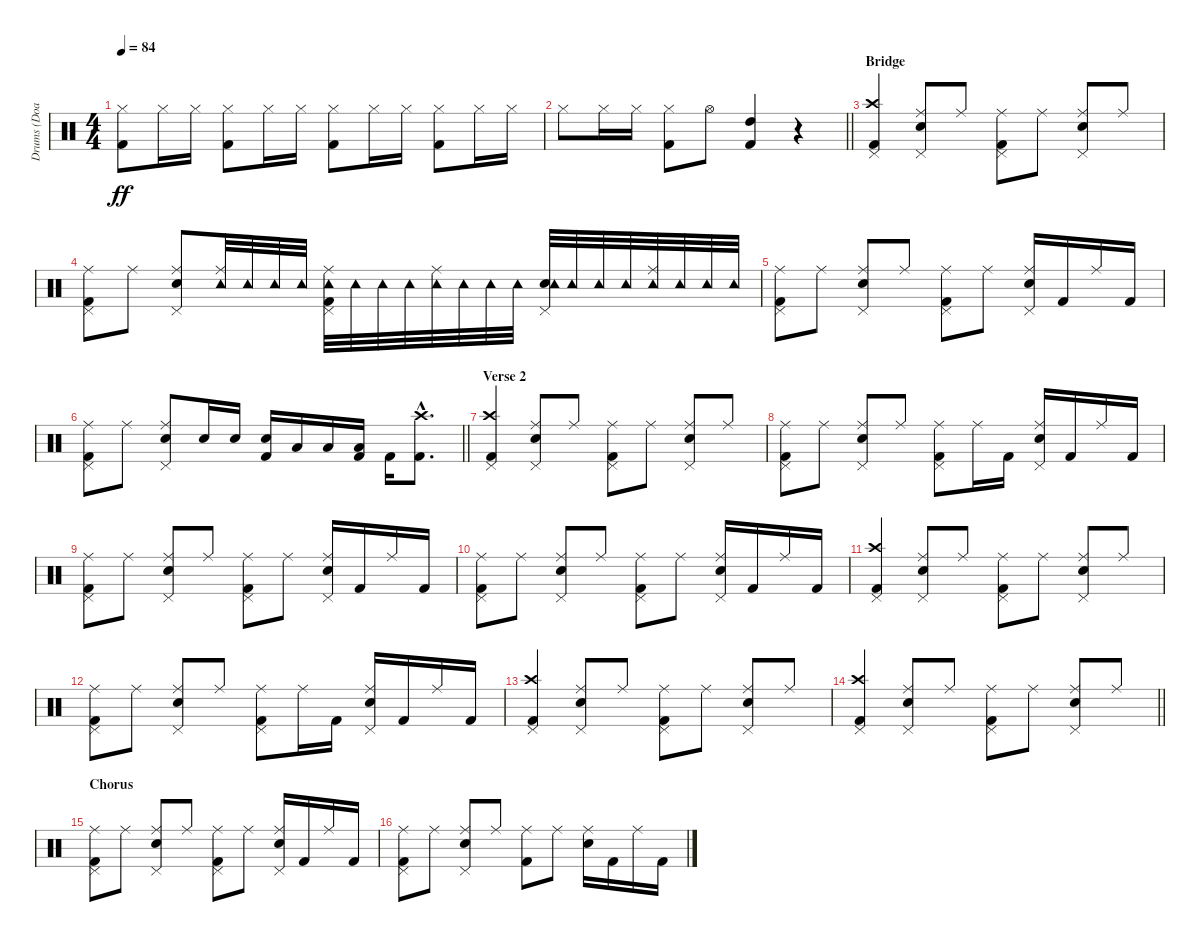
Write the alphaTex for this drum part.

\track ("Drums (Doane Perry)" "Drums (Doa") {instrument percussion}
\staff {score}
\articulation defaults
\ts (4 4)
\tempo 84
\clef neutral
\ks c
("Hi-Hat (closed)" "Kick (hit) 2").8{dy ff} "Hi-Hat (closed)".16 "Hi-Hat (closed)".16 ("Hi-Hat (closed)" "Kick (hit) 2").8 "Hi-Hat (closed)".16 "Hi-Hat (closed)".16 ("Hi-Hat (closed)" "Kick (hit) 2").8 "Hi-Hat (closed)".16 "Hi-Hat (closed)".16 ("Hi-Hat (closed)" "Kick (hit) 2").8 "Hi-Hat (closed)".16 "Hi-Hat (closed)".16 |
\barLineRight lightlight "Hi-Hat (closed)".8 "Hi-Hat (closed)".16 "Hi-Hat (closed)".16
("Hi-Hat (closed)" "Kick (hit) 2").8 "Hi-Hat (open)".8 ("High Tom (hit)" "Kick (hit) 2").4 r.4 |
\section ("" "Bridge")
("Crash high (hit)" "Pedal Hi-Hat (hit)" "Kick (hit) 2").4 ("Ride (middle)" "Snare (hit) 2" "Pedal Hi-Hat (hit)").8 "Ride (middle)".8 ("Ride (middle)" "Pedal Hi-Hat (hit)" "Kick (hit) 2").8 "Ride (middle)".8 ("Ride (middle)" "Snare (hit) 2" "Pedal Hi-Hat (hit)").8 "Ride (middle)".8 |
("Ride (middle)" "Pedal Hi-Hat (hit)" "Kick (hit) 2").8 "Ride (middle)".8 ("Ride (middle)" "Snare (hit) 2" "Pedal Hi-Hat (hit)").8 ("Ride (middle)" "Tambourine (hit)").32 "Tambourine (hit)".32 "Tambourine (hit)".32 "Tambourine (hit)".32 ("Ride (middle)" "Tambourine (hit)" "Pedal Hi-Hat (hit)" "Kick (hit) 2").32 "Tambourine (hit)".32 "Tambourine (hit)".32 "Tambourine (hit)".32 ("Ride (middle)" "Tambourine (hit)").32 "Tambourine (hit)".32 "Tambourine (hit)".32 "Tambourine (hit)".32 ("Snare (hit) 2" "Tambourine (hit)" "Pedal Hi-Hat (hit)").32 "Tambourine (hit)".32 "Tambourine (hit)".32 "Tambourine (hit)".32 ("Ride (middle)" "Tambourine (hit)").32 "Tambourine (hit)".32 "Tambourine (hit)".32 "Tambourine (hit)".32 |
("Ride (middle)" "Pedal Hi-Hat (hit)" "Kick (hit) 2").8 "Ride (middle)".8 ("Ride (middle)" "Snare (hit) 2" "Pedal Hi-Hat (hit)").8 "Ride (middle)".8 ("Ride (middle)" "Pedal Hi-Hat (hit)" "Kick (hit) 2").8 "Ride (middle)".8 ("Ride (middle)" "Snare (hit) 2" "Pedal Hi-Hat (hit)").16 "Kick (hit) 2".16 "Ride (middle)".16 "Kick (hit) 2".16 |
\barLineRight lightlight
("Ride (middle)" "Pedal Hi-Hat (hit)" "Kick (hit) 2").8 "Ride (middle)".8 ("Ride (middle)" "Snare (hit) 2" "Pedal Hi-Hat (hit)").8 "Snare (hit) 2".16 "Snare (hit) 2".16 ("Snare (hit) 2" "Kick (hit) 2").16 "Low Floor Tom (hit)".16 "Low Floor Tom (hit)".16 ("Low Floor Tom (hit)" "Kick (hit) 2").16 "Kick (hit) 2".16 ("Crash high (hit)"{hac} "Kick (hit) 2"{hac}).8{d} |
\section ("" "Verse 2")
("Kick (hit) 2" "Pedal Hi-Hat (hit)" "Crash high (hit)").4 ("Snare (hit) 2" "Pedal Hi-Hat (hit)" "Ride (middle)").8 "Ride (middle)".8 ("Kick (hit) 2" "Pedal Hi-Hat (hit)" "Ride (middle)").8 "Ride (middle)".8 ("Snare (hit) 2" "Pedal Hi-Hat (hit)" "Ride (middle)").8 "Ride (middle)".8 |
("Kick (hit) 2" "Pedal Hi-Hat (hit)" "Ride (middle)").8 "Ride (middle)".8 ("Snare (hit) 2" "Pedal Hi-Hat (hit)" "Ride (middle)").8 "Ride (middle)".8 ("Kick (hit) 2" "Pedal Hi-Hat (hit)" "Ride (middle)").8 "Ride (middle)".16 "Kick (hit) 2".16 ("Snare (hit) 2" "Pedal Hi-Hat (hit)" "Ride (middle)").16 "Kick (hit) 2".16 "Ride (middle)".16 "Kick (hit) 2".16 |
("Kick (hit) 2" "Pedal Hi-Hat (hit)" "Ride (middle)").8 "Ride (middle)".8 ("Snare (hit) 2" "Pedal Hi-Hat (hit)" "Ride (middle)").8 "Ride (middle)".8 ("Kick (hit) 2" "Pedal Hi-Hat (hit)" "Ride (middle)").8 "Ride (middle)".8 ("Snare (hit) 2" "Pedal Hi-Hat (hit)" "Ride (middle)").16 "Kick (hit) 2".16 "Ride (middle)".16 "Kick (hit) 2".16 |
("Kick (hit) 2" "Pedal Hi-Hat (hit)" "Ride (middle)").8 "Ride (middle)".8 ("Snare (hit) 2" "Pedal Hi-Hat (hit)" "Ride (middle)").8 "Ride (middle)".8 ("Kick (hit) 2" "Pedal Hi-Hat (hit)" "Ride (middle)").8 "Ride (middle)".8 ("Snare (hit) 2" "Pedal Hi-Hat (hit)" "Ride (middle)").16 "Kick (hit) 2".16 "Ride (middle)".16 "Kick (hit) 2".16 |
("Kick (hit) 2" "Pedal Hi-Hat (hit)" "Crash high (hit)").4 ("Snare (hit) 2" "Pedal Hi-Hat (hit)" "Ride (middle)").8 "Ride (middle)".8 ("Kick (hit) 2" "Pedal Hi-Hat (hit)" "Ride (middle)").8 "Ride (middle)".8 ("Snare (hit) 2" "Pedal Hi-Hat (hit)" "Ride (middle)").8 "Ride (middle)".8 |
("Kick (hit) 2" "Pedal Hi-Hat (hit)" "Ride (middle)").8 "Ride (middle)".8 ("Snare (hit) 2" "Pedal Hi-Hat (hit)" "Ride (middle)").8 "Ride (middle)".8 ("Kick (hit) 2" "Pedal Hi-Hat (hit)" "Ride (middle)").8 "Ride (middle)".16 "Kick (hit) 2".16 ("Snare (hit) 2" "Pedal Hi-Hat (hit)" "Ride (middle)").16 "Kick (hit) 2".16 "Ride (middle)".16 "Kick (hit) 2".16 |
("Kick (hit) 2" "Pedal Hi-Hat (hit)" "Crash high (hit)").4 ("Snare (hit) 2" "Pedal Hi-Hat (hit)" "Ride (middle)").8 "Ride (middle)".8 ("Kick (hit) 2" "Pedal Hi-Hat (hit)" "Ride (middle)").8 "Ride (middle)".8 ("Snare (hit) 2" "Pedal Hi-Hat (hit)" "Ride (middle)").8 "Ride (middle)".8 |
\barLineRight lightlight
("Kick (hit) 2" "Pedal Hi-Hat (hit)" "Crash high (hit)").4 ("Snare (hit) 2" "Pedal Hi-Hat (hit)" "Ride (middle)").8 "Ride (middle)".8 ("Kick (hit) 2" "Pedal Hi-Hat (hit)" "Ride (middle)").8 "Ride (middle)".8 ("Snare (hit) 2" "Pedal Hi-Hat (hit)" "Ride (middle)").8 "Ride (middle)".8 |
\section ("" "Chorus")
("Kick (hit) 2" "Pedal Hi-Hat (hit)" "Ride (middle)").8 "Ride (middle)".8 ("Snare (hit) 2" "Pedal Hi-Hat (hit)" "Ride (middle)").8 "Ride (middle)".8 ("Kick (hit) 2" "Pedal Hi-Hat (hit)" "Ride (middle)").8 "Ride (middle)".8 ("Snare (hit) 2" "Pedal Hi-Hat (hit)" "Ride (middle)").16 "Kick (hit) 2".16 "Ride (middle)".16 "Kick (hit) 2".16 |
("Kick (hit) 2" "Pedal Hi-Hat (hit)" "Ride (middle)").8 "Ride (middle)".8 ("Snare (hit) 2" "Pedal Hi-Hat (hit)" "Ride (middle)").8 "Ride (middle)".8 ("Kick (hit) 2" "Ride (middle)").8 "Ride (middle)".8 ("Snare (hit) 2" "Ride (middle)").16 "Kick (hit) 2".16 "Ride (middle)".16 "Kick (hit) 2".16
